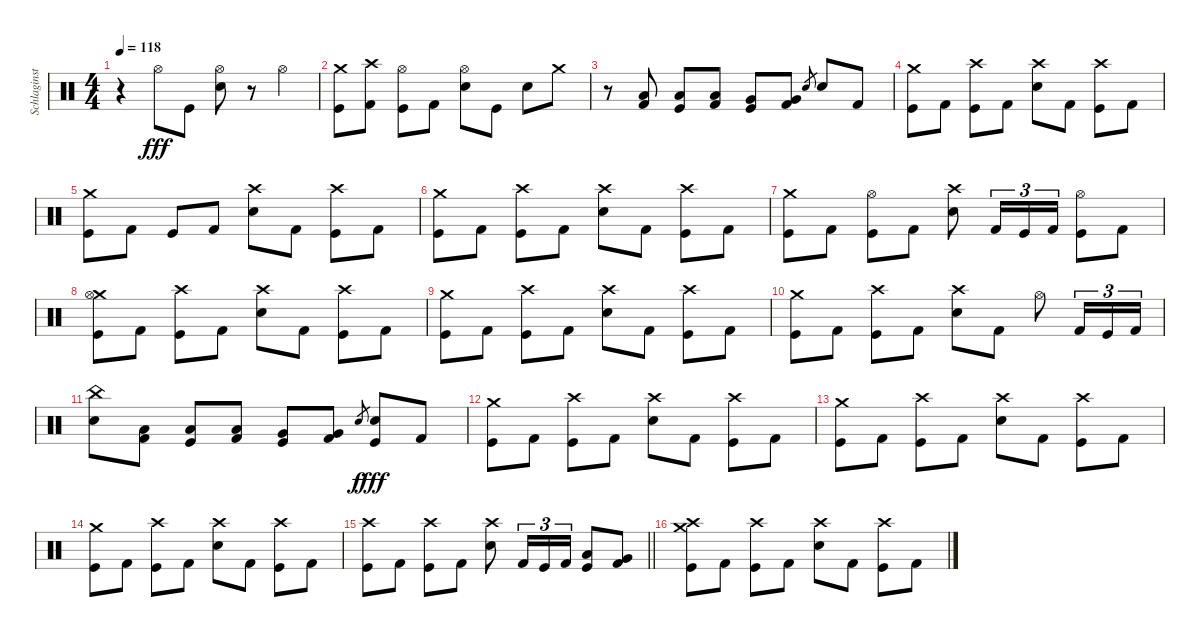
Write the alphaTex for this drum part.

\track ("Schlaginstrumente - Auswahl" "Schlaginst") {instrument percussion}
\staff {score}
\articulation defaults
\ts (4 4)
\tempo 118
\clef neutral
\ks c
r.4{dy fff} "Hi-Hat (open)".8 "Kick (hit)".8 ("Hi-Hat (open)" "Snare (hit) 2").8 r.8 "Hi-Hat (open)".4 |
("Crash medium (hit)" "Kick (hit)").8 ("Crash high (hit)" "Kick (hit) 2").8 ("Hi-Hat (open)" "Kick (hit)").8 "Kick (hit) 2".8 ("Hi-Hat (open)" "Snare (hit) 2").8 "Kick (hit)".8 "Snare (hit) 2".8 "Crash medium (hit)".8 |
r.8 ("Low Tom (hit)" "Kick (hit) 2").8 ("Low Tom (hit)" "Kick (hit)").8 ("Low Tom (hit)" "Kick (hit) 2").8 ("Very Low Tom (hit)" "Kick (hit)").8 ("Very Low Tom (hit)" "Kick (hit) 2").8 "Snare (hit) 2".8{gr} "Snare (hit) 2".8 "Kick (hit) 2".8 |
("Crash medium (hit)" "Kick (hit)").8 "Kick (hit) 2".8 ("Crash high (hit)" "Kick (hit)").8 "Kick (hit) 2".8 ("Crash high (hit)" "Snare (hit) 2").8 "Kick (hit) 2".8 ("Crash high (hit)" "Kick (hit)").8 "Kick (hit) 2".8 |
("Crash medium (hit)" "Kick (hit)").8 "Kick (hit) 2".8 "Kick (hit)".8 "Kick (hit) 2".8 ("Crash high (hit)" "Snare (hit) 2").8 "Kick (hit) 2".8 ("Crash high (hit)" "Kick (hit)").8 "Kick (hit) 2".8 |
("Crash medium (hit)" "Kick (hit)").8 "Kick (hit) 2".8 ("Crash high (hit)" "Kick (hit)").8 "Kick (hit) 2".8 ("Crash high (hit)" "Snare (hit) 2").8 "Kick (hit) 2".8 ("Crash high (hit)" "Kick (hit)").8 "Kick (hit) 2".8 |
("Crash medium (hit)" "Kick (hit)").8 "Kick (hit) 2".8 ("Hi-Hat (open)" "Kick (hit)").8 "Kick (hit) 2".8 ("Crash high (hit)" "Snare (hit) 2").8 "Kick (hit) 2".16{tu (3 2)} "Kick (hit)".16{tu (3 2)} "Kick (hit) 2".16{tu (3 2)} ("Hi-Hat (open)" "Kick (hit)").8 "Kick (hit) 2".8 |
("Crash medium (hit)" "Hi-Hat (open)" "Kick (hit)").8 "Kick (hit) 2".8 ("Crash high (hit)" "Kick (hit)").8 "Kick (hit) 2".8 ("Crash high (hit)" "Snare (hit) 2").8 "Kick (hit) 2".8 ("Crash high (hit)" "Kick (hit)").8 "Kick (hit) 2".8 |
("Crash medium (hit)" "Kick (hit)").8 "Kick (hit) 2".8 ("Crash high (hit)" "Kick (hit)").8 "Kick (hit) 2".8 ("Crash high (hit)" "Snare (hit) 2").8 "Kick (hit) 2".8 ("Crash high (hit)" "Kick (hit)").8 "Kick (hit) 2".8 |
("Crash medium (hit)" "Kick (hit)").8 "Kick (hit) 2".8 ("Crash high (hit)" "Kick (hit)").8 "Kick (hit) 2".8 ("Crash high (hit)" "Snare (hit) 2").8 "Kick (hit) 2".8 "Hi-Hat (open)".8 "Kick (hit) 2".16{tu (3 2)} "Kick (hit)".16{tu (3 2)} "Kick (hit) 2".16{tu (3 2)} |
("Snare (hit) 2" "China (hit)").8 ("Low Tom (hit)" "Kick (hit) 2").8 ("Low Tom (hit)" "Kick (hit)").8 ("Low Tom (hit)" "Kick (hit) 2").8 ("Very Low Tom (hit)" "Kick (hit)").8 ("Very Low Tom (hit)" "Kick (hit) 2").8 "Snare (hit) 2".8{gr dy f} ("Snare (hit) 2" "Kick (hit)").8{dy fff} "Kick (hit) 2".8 |
("Crash medium (hit)" "Kick (hit)").8 "Kick (hit) 2".8 ("Crash high (hit)" "Kick (hit)").8 "Kick (hit) 2".8 ("Crash high (hit)" "Snare (hit) 2").8 "Kick (hit) 2".8 ("Crash high (hit)" "Kick (hit)").8 "Kick (hit) 2".8 |
("Crash medium (hit)" "Kick (hit)").8 "Kick (hit) 2".8 ("Crash high (hit)" "Kick (hit)").8 "Kick (hit) 2".8 ("Crash high (hit)" "Snare (hit) 2").8 "Kick (hit) 2".8 ("Crash high (hit)" "Kick (hit)").8 "Kick (hit) 2".8 |
("Crash medium (hit)" "Kick (hit)").8 "Kick (hit) 2".8 ("Crash high (hit)" "Kick (hit)").8 "Kick (hit) 2".8 ("Crash high (hit)" "Snare (hit) 2").8 "Kick (hit) 2".8 ("Crash high (hit)" "Kick (hit)").8 "Kick (hit) 2".8 |
\barLineRight lightlight
("Crash high (hit)" "Kick (hit)").8 "Kick (hit) 2".8 ("Crash high (hit)" "Kick (hit)").8 "Kick (hit) 2".8 ("Crash high (hit)" "Snare (hit) 2").8 "Kick (hit) 2".16{tu (3 2)} "Kick (hit)".16{tu (3 2)} "Kick (hit) 2".16{tu (3 2)} ("Low Tom (hit)" "Kick (hit)").8 ("Very Low Tom (hit)" "Kick (hit) 2").8 |
("Crash medium (hit)" "Crash high (hit)" "Kick (hit)").8 "Kick (hit) 2".8 ("Crash high (hit)" "Kick (hit)").8 "Kick (hit) 2".8 ("Crash high (hit)" "Snare (hit) 2").8 "Kick (hit) 2".8 ("Crash high (hit)" "Kick (hit)").8 "Kick (hit) 2".8
